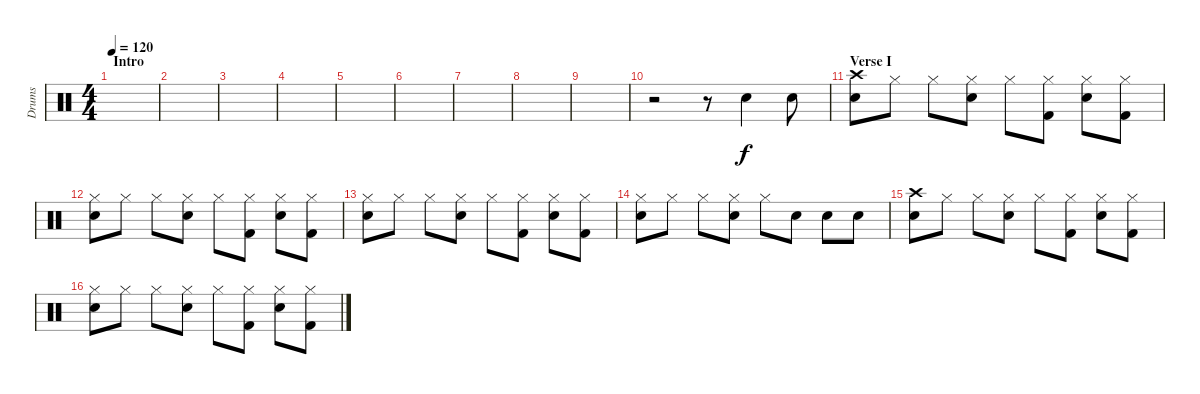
\track ("Drums" "Drums") {instrument percussion}
\staff {score}
\articulation defaults
\ts (4 4)
\section ("" "Intro")
\tempo 120
\clef neutral
\ks c
|
|
|
|
|
|
|
|
|
r.2 r.8 "Snare (hit) 2".4 "Snare (hit) 2".8 |
\section ("" "Verse I")
("Crash high (hit)" "Snare (hit) 2").8 "Hi-Hat (closed)".8 "Hi-Hat (closed)".8 ("Hi-Hat (closed)" "Snare (hit) 2").8 "Hi-Hat (closed)".8 ("Hi-Hat (closed)" "Kick (hit) 2").8 ("Hi-Hat (closed)" "Snare (hit) 2").8 ("Hi-Hat (closed)" "Kick (hit) 2").8 |
("Hi-Hat (closed)" "Snare (hit) 2").8 "Hi-Hat (closed)".8 "Hi-Hat (closed)".8 ("Hi-Hat (closed)" "Snare (hit) 2").8 "Hi-Hat (closed)".8 ("Hi-Hat (closed)" "Kick (hit) 2").8 ("Hi-Hat (closed)" "Snare (hit) 2").8 ("Hi-Hat (closed)" "Kick (hit) 2").8 |
("Hi-Hat (closed)" "Snare (hit) 2").8 "Hi-Hat (closed)".8 "Hi-Hat (closed)".8 ("Hi-Hat (closed)" "Snare (hit) 2").8 "Hi-Hat (closed)".8 ("Hi-Hat (closed)" "Kick (hit) 2").8 ("Hi-Hat (closed)" "Snare (hit) 2").8 ("Hi-Hat (closed)" "Kick (hit) 2").8 |
("Hi-Hat (closed)" "Snare (hit) 2").8 "Hi-Hat (closed)".8 "Hi-Hat (closed)".8 ("Hi-Hat (closed)" "Snare (hit) 2").8 "Hi-Hat (closed)".8 "Snare (hit) 2".8 "Snare (hit) 2".8 "Snare (hit) 2".8 |
("Crash high (hit)" "Snare (hit) 2").8 "Hi-Hat (closed)".8 "Hi-Hat (closed)".8 ("Hi-Hat (closed)" "Snare (hit) 2").8 "Hi-Hat (closed)".8 ("Hi-Hat (closed)" "Kick (hit) 2").8 ("Hi-Hat (closed)" "Snare (hit) 2").8 ("Hi-Hat (closed)" "Kick (hit) 2").8 |
("Hi-Hat (closed)" "Snare (hit) 2").8 "Hi-Hat (closed)".8 "Hi-Hat (closed)".8 ("Hi-Hat (closed)" "Snare (hit) 2").8 "Hi-Hat (closed)".8 ("Hi-Hat (closed)" "Kick (hit) 2").8 ("Hi-Hat (closed)" "Snare (hit) 2").8 ("Hi-Hat (closed)" "Kick (hit) 2").8
